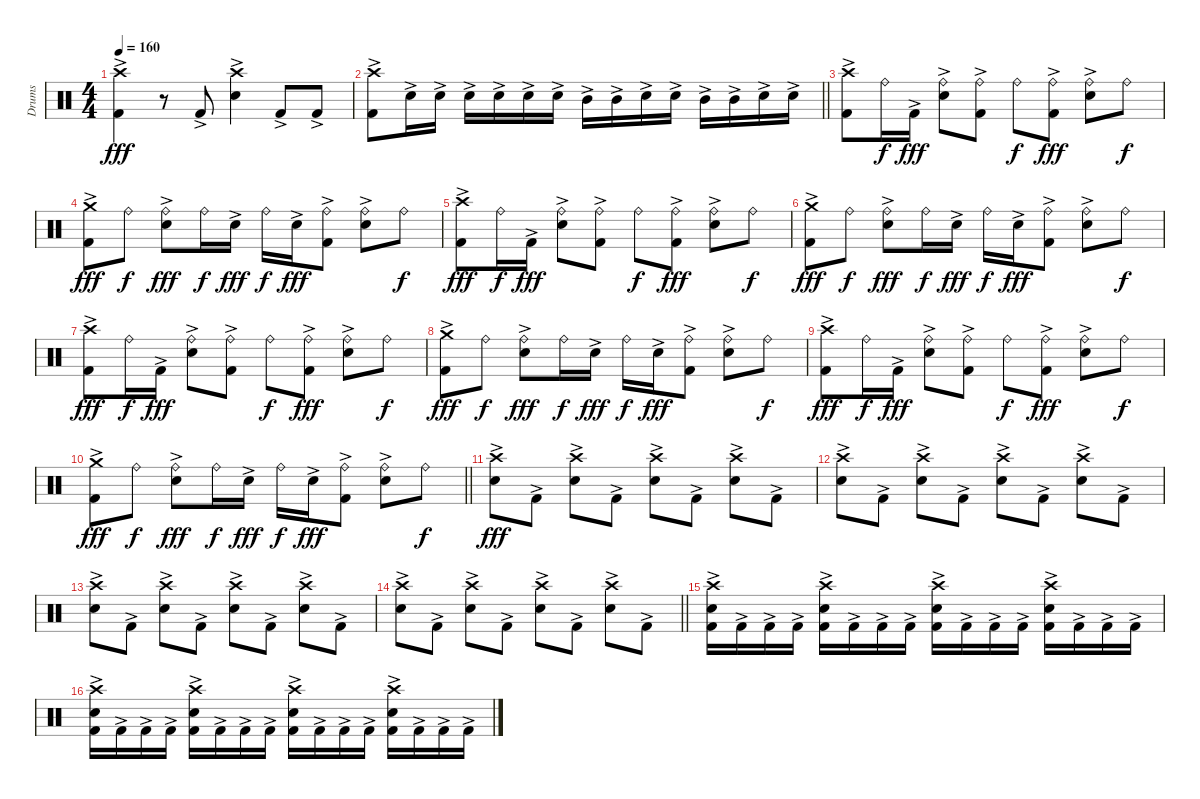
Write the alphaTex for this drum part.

\track ("Drums" "Drums") {instrument percussion}
\staff {score}
\articulation defaults
\ts (4 4)
\tempo 160
\clef neutral
\ks c
("Crash high (hit)" "Kick (hit) 2"{ac}).4{dy fff} r.8 "Kick (hit) 2"{ac}.8 ("Crash high (hit)" "Snare (hit) 2"{ac}).4 "Kick (hit) 2"{ac}.8 "Kick (hit) 2"{ac}.8 |
\barLineRight lightlight
("Crash high (hit)" "Kick (hit) 2"{ac}).8 "Snare (hit) 2"{ac}.16 "Snare (hit) 2"{ac}.16 "Snare (hit) 2"{ac}.16 "Snare (hit) 2"{ac}.16 "Snare (hit) 2"{ac}.16 "Snare (hit) 2"{ac}.16 "Mid Tom (hit)"{ac}.16 "Mid Tom (hit)"{ac}.16 "Snare (hit) 2"{ac}.16 "Snare (hit) 2"{ac}.16 "Mid Tom (hit)"{ac}.16 "Mid Tom (hit)"{ac}.16 "Snare (hit) 2"{ac}.16 "Snare (hit) 2"{ac}.16 |
("Crash high (hit)" "Kick (hit) 2"{ac}).8 "Ride (bell)".16{dy f} "Kick (hit) 2"{ac}.16{dy fff} ("Ride (bell)" "Snare (hit) 2"{ac}).8 ("Ride (bell)" "Kick (hit) 2"{ac}).8 "Ride (bell)".8{dy f} ("Ride (bell)" "Kick (hit) 2"{ac}).8{dy fff} ("Ride (bell)" "Snare (hit) 2"{ac}).8 "Ride (bell)".8{dy f} |
("Crash medium (hit)" "Kick (hit) 2"{ac}).8{dy fff} "Ride (bell)".8{dy f} ("Ride (bell)" "Snare (hit) 2"{ac}).8{dy fff} "Ride (bell)".16{dy f} "Snare (hit) 2"{ac}.16{dy fff} "Ride (bell)".16{dy f} "Snare (hit) 2"{ac}.16{dy fff} ("Ride (bell)" "Kick (hit) 2"{ac}).8 ("Ride (bell)" "Snare (hit) 2"{ac}).8 "Ride (bell)".8{dy f} |
("Crash high (hit)" "Kick (hit) 2"{ac}).8{dy fff} "Ride (bell)".16{dy f} "Kick (hit) 2"{ac}.16{dy fff} ("Ride (bell)" "Snare (hit) 2"{ac}).8 ("Ride (bell)" "Kick (hit) 2"{ac}).8 "Ride (bell)".8{dy f} ("Ride (bell)" "Kick (hit) 2"{ac}).8{dy fff} ("Ride (bell)" "Snare (hit) 2"{ac}).8 "Ride (bell)".8{dy f} |
("Crash medium (hit)" "Kick (hit) 2"{ac}).8{dy fff} "Ride (bell)".8{dy f} ("Ride (bell)" "Snare (hit) 2"{ac}).8{dy fff} "Ride (bell)".16{dy f} "Snare (hit) 2"{ac}.16{dy fff} "Ride (bell)".16{dy f} "Snare (hit) 2"{ac}.16{dy fff} ("Ride (bell)" "Kick (hit) 2"{ac}).8 ("Ride (bell)" "Snare (hit) 2"{ac}).8 "Ride (bell)".8{dy f} |
("Crash high (hit)" "Kick (hit) 2"{ac}).8{dy fff} "Ride (bell)".16{dy f} "Kick (hit) 2"{ac}.16{dy fff} ("Ride (bell)" "Snare (hit) 2"{ac}).8 ("Ride (bell)" "Kick (hit) 2"{ac}).8 "Ride (bell)".8{dy f} ("Ride (bell)" "Kick (hit) 2"{ac}).8{dy fff} ("Ride (bell)" "Snare (hit) 2"{ac}).8 "Ride (bell)".8{dy f} |
("Crash medium (hit)" "Kick (hit) 2"{ac}).8{dy fff} "Ride (bell)".8{dy f} ("Ride (bell)" "Snare (hit) 2"{ac}).8{dy fff} "Ride (bell)".16{dy f} "Snare (hit) 2"{ac}.16{dy fff} "Ride (bell)".16{dy f} "Snare (hit) 2"{ac}.16{dy fff} ("Ride (bell)" "Kick (hit) 2"{ac}).8 ("Ride (bell)" "Snare (hit) 2"{ac}).8 "Ride (bell)".8{dy f} |
("Crash high (hit)" "Kick (hit) 2"{ac}).8{dy fff} "Ride (bell)".16{dy f} "Kick (hit) 2"{ac}.16{dy fff} ("Ride (bell)" "Snare (hit) 2"{ac}).8 ("Ride (bell)" "Kick (hit) 2"{ac}).8 "Ride (bell)".8{dy f} ("Ride (bell)" "Kick (hit) 2"{ac}).8{dy fff} ("Ride (bell)" "Snare (hit) 2"{ac}).8 "Ride (bell)".8{dy f} |
\barLineRight lightlight
("Crash medium (hit)" "Kick (hit) 2"{ac}).8{dy fff} "Ride (bell)".8{dy f} ("Ride (bell)" "Snare (hit) 2"{ac}).8{dy fff} "Ride (bell)".16{dy f} "Snare (hit) 2"{ac}.16{dy fff} "Ride (bell)".16{dy f} "Snare (hit) 2"{ac}.16{dy fff} ("Ride (bell)" "Kick (hit) 2"{ac}).8 ("Ride (bell)" "Snare (hit) 2"{ac}).8 "Ride (bell)".8{dy f} |
("Crash high (hit)" "Snare (hit) 2"{ac}).8{dy fff} "Kick (hit) 2"{ac}.8 ("Crash high (hit)" "Snare (hit) 2"{ac}).8 "Kick (hit) 2"{ac}.8 ("Crash high (hit)" "Snare (hit) 2"{ac}).8 "Kick (hit) 2"{ac}.8 ("Crash high (hit)" "Snare (hit) 2"{ac}).8 "Kick (hit) 2"{ac}.8 |
("Crash high (hit)" "Snare (hit) 2"{ac}).8 "Kick (hit) 2"{ac}.8 ("Crash high (hit)" "Snare (hit) 2"{ac}).8 "Kick (hit) 2"{ac}.8 ("Crash high (hit)" "Snare (hit) 2"{ac}).8 "Kick (hit) 2"{ac}.8 ("Crash high (hit)" "Snare (hit) 2"{ac}).8 "Kick (hit) 2"{ac}.8 |
("Crash high (hit)" "Snare (hit) 2"{ac}).8 "Kick (hit) 2"{ac}.8 ("Crash high (hit)" "Snare (hit) 2"{ac}).8 "Kick (hit) 2"{ac}.8 ("Crash high (hit)" "Snare (hit) 2"{ac}).8 "Kick (hit) 2"{ac}.8 ("Crash high (hit)" "Snare (hit) 2"{ac}).8 "Kick (hit) 2"{ac}.8 |
\barLineRight lightlight
("Crash high (hit)" "Snare (hit) 2"{ac}).8 "Kick (hit) 2"{ac}.8 ("Crash high (hit)" "Snare (hit) 2"{ac}).8 "Kick (hit) 2"{ac}.8 ("Crash high (hit)" "Snare (hit) 2"{ac}).8 "Kick (hit) 2"{ac}.8 ("Crash high (hit)" "Snare (hit) 2"{ac}).8 "Kick (hit) 2"{ac}.8 |
("Crash high (hit)" "Snare (hit) 2"{ac} "Kick (hit) 2"{ac}).16 "Kick (hit) 2"{ac}.16 "Kick (hit) 2"{ac}.16 "Kick (hit) 2"{ac}.16 ("Crash high (hit)" "Snare (hit) 2"{ac} "Kick (hit) 2"{ac}).16 "Kick (hit) 2"{ac}.16 "Kick (hit) 2"{ac}.16 "Kick (hit) 2"{ac}.16 ("Crash high (hit)" "Snare (hit) 2"{ac} "Kick (hit) 2"{ac}).16 "Kick (hit) 2"{ac}.16 "Kick (hit) 2"{ac}.16 "Kick (hit) 2"{ac}.16 ("Crash high (hit)" "Snare (hit) 2"{ac} "Kick (hit) 2"{ac}).16 "Kick (hit) 2"{ac}.16 "Kick (hit) 2"{ac}.16 "Kick (hit) 2"{ac}.16 |
("Crash high (hit)" "Snare (hit) 2"{ac} "Kick (hit) 2"{ac}).16 "Kick (hit) 2"{ac}.16 "Kick (hit) 2"{ac}.16 "Kick (hit) 2"{ac}.16 ("Crash high (hit)" "Snare (hit) 2"{ac} "Kick (hit) 2"{ac}).16 "Kick (hit) 2"{ac}.16 "Kick (hit) 2"{ac}.16 "Kick (hit) 2"{ac}.16 ("Crash high (hit)" "Snare (hit) 2"{ac} "Kick (hit) 2"{ac}).16 "Kick (hit) 2"{ac}.16 "Kick (hit) 2"{ac}.16 "Kick (hit) 2"{ac}.16 ("Crash high (hit)" "Snare (hit) 2"{ac} "Kick (hit) 2"{ac}).16 "Kick (hit) 2"{ac}.16 "Kick (hit) 2"{ac}.16 "Kick (hit) 2"{ac}.16
